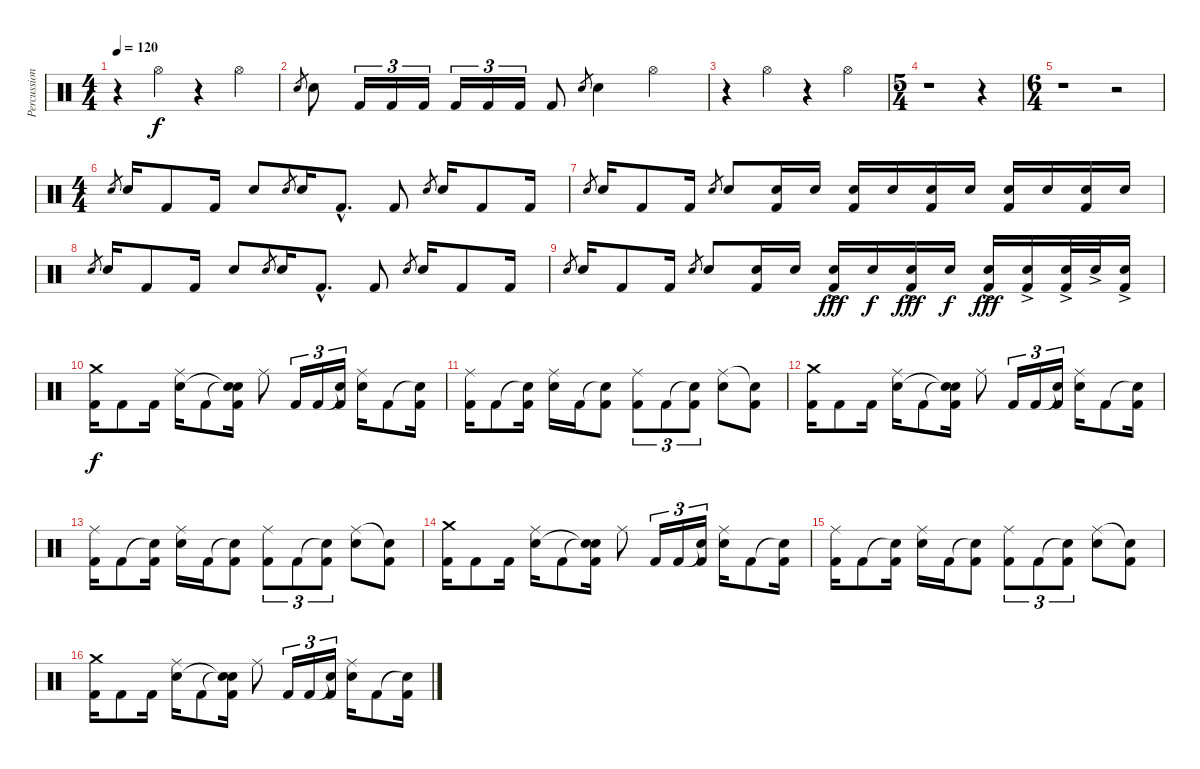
\track ("Percussion" "Percussion") {instrument percussion}
\staff {score}
\articulation defaults
\ts (4 4)
\tempo 120
\clef neutral
\ks c
r.4{dy f} "Hi-Hat (open)".4 r.4 "Hi-Hat (open)".4 |
"Electric Snare (hit)".8{gr} "Electric Snare (hit)".8 "Kick (hit) 2".16{tu (3 2)} "Kick (hit) 2".16{tu (3 2)} "Kick (hit) 2".16{tu (3 2)} "Kick (hit) 2".16{tu (3 2)} "Kick (hit) 2".16{tu (3 2)} "Kick (hit) 2".16{tu (3 2)} "Kick (hit) 2".8 "Electric Snare (hit)".8{gr} "Electric Snare (hit)".4 "Hi-Hat (open)".4 |
r.4 "Hi-Hat (open)".4 r.4 "Hi-Hat (open)".4 |
\ts (5 4)
r.1 r.4 |
\ts (6 4)
r.1 r.2 |
\ts (4 4)
"Electric Snare (hit)".8{gr} "Electric Snare (hit)".16 "Kick (hit) 2".8 "Kick (hit) 2".16 "Electric Snare (hit)".8 "Electric Snare (hit)".8{gr} "Electric Snare (hit)".16 "Kick (hit) 2"{hac}.8{d} "Kick (hit) 2".8 "Electric Snare (hit)".8{gr} "Electric Snare (hit)".16 "Kick (hit) 2".8 "Kick (hit) 2".16 |
"Electric Snare (hit)".8{gr} "Electric Snare (hit)".16 "Kick (hit) 2".8 "Kick (hit) 2".16 "Electric Snare (hit)".8{gr} "Electric Snare (hit)".8 ("Electric Snare (hit)" "Kick (hit) 2").16 "Electric Snare (hit)".16 ("Electric Snare (hit)" "Kick (hit) 2").16 "Electric Snare (hit)".16 ("Electric Snare (hit)" "Kick (hit) 2").16 "Electric Snare (hit)".16 ("Electric Snare (hit)" "Kick (hit) 2").16 "Electric Snare (hit)".16 ("Electric Snare (hit)" "Kick (hit) 2").16 "Electric Snare (hit)".16 |
"Electric Snare (hit)".8{gr} "Electric Snare (hit)".16 "Kick (hit) 2".8 "Kick (hit) 2".16 "Electric Snare (hit)".8 "Electric Snare (hit)".8{gr} "Electric Snare (hit)".16 "Kick (hit) 2"{hac}.8{d} "Kick (hit) 2".8 "Electric Snare (hit)".8{gr} "Electric Snare (hit)".16 "Kick (hit) 2".8 "Kick (hit) 2".16 |
"Electric Snare (hit)".8{gr} "Electric Snare (hit)".16 "Kick (hit) 2".8 "Kick (hit) 2".16 "Electric Snare (hit)".8{gr} "Electric Snare (hit)".8 ("Electric Snare (hit)" "Kick (hit) 2").16 "Electric Snare (hit)".16 ("Electric Snare (hit)"{ac} "Kick (hit) 2").16{dy fff} "Electric Snare (hit)".16{dy f} ("Electric Snare (hit)"{ac} "Kick (hit) 2").16{dy fff} "Electric Snare (hit)".16{dy f} ("Electric Snare (hit)"{ac} "Kick (hit) 2").16{dy fff} ("Electric Snare (hit)"{ac} "Kick (hit) 2").16 ("Electric Snare (hit)"{ac} "Kick (hit) 2").32 "Electric Snare (hit)"{ac}.32 ("Electric Snare (hit)"{ac} "Kick (hit) 2").16 |
("Crash medium (hit)" "Kick (hit) 2").16{dy f} "Kick (hit) 2".8 "Kick (hit) 2".16 ("Ride (middle)" "Electric Snare (hit)").16 "Kick (hit) 2".8 ("Snare (hit)"{t} "Snare (hit)"{t} "Kick (hit) 2").16 "Ride (middle)".8 "Kick (hit) 2".16{tu (3 2)} "Kick (hit) 2".16{tu (3 2)} ("Snare (hit)"{t} "Kick (hit) 2").16{tu (3 2)} ("Ride (middle)" "Electric Snare (hit)").16 "Kick (hit) 2".8 ("Snare (hit)"{t} "Kick (hit) 2").16 |
("Ride (middle)" "Kick (hit) 2").16 "Kick (hit) 2".8 ("Snare (hit)"{t} "Kick (hit) 2").16 ("Ride (middle)" "Electric Snare (hit)").16 "Kick (hit) 2".16 ("Snare (hit)"{t} "Kick (hit) 2").8 ("Ride (middle)" "Kick (hit) 2").8{tu (3 2)} "Kick (hit) 2".8{tu (3 2)} ("Snare (hit)"{t} "Kick (hit) 2").8{tu (3 2)} ("Ride (middle)" "Electric Snare (hit)").8 ("Snare (hit)"{t} "Kick (hit) 2").8 |
("Crash medium (hit)" "Kick (hit) 2").16 "Kick (hit) 2".8 "Kick (hit) 2".16 ("Ride (middle)" "Electric Snare (hit)").16 "Kick (hit) 2".8 ("Snare (hit)"{t} "Snare (hit)"{t} "Kick (hit) 2").16 "Ride (middle)".8 "Kick (hit) 2".16{tu (3 2)} "Kick (hit) 2".16{tu (3 2)} ("Snare (hit)"{t} "Kick (hit) 2").16{tu (3 2)} ("Ride (middle)" "Electric Snare (hit)").16 "Kick (hit) 2".8 ("Snare (hit)"{t} "Kick (hit) 2").16 |
("Ride (middle)" "Kick (hit) 2").16 "Kick (hit) 2".8 ("Snare (hit)"{t} "Kick (hit) 2").16 ("Ride (middle)" "Electric Snare (hit)").16 "Kick (hit) 2".16 ("Snare (hit)"{t} "Kick (hit) 2").8 ("Ride (middle)" "Kick (hit) 2").8{tu (3 2)} "Kick (hit) 2".8{tu (3 2)} ("Snare (hit)"{t} "Kick (hit) 2").8{tu (3 2)} ("Ride (middle)" "Electric Snare (hit)").8 ("Snare (hit)"{t} "Kick (hit) 2").8 |
("Crash medium (hit)" "Kick (hit) 2").16 "Kick (hit) 2".8 "Kick (hit) 2".16 ("Ride (middle)" "Electric Snare (hit)").16 "Kick (hit) 2".8 ("Snare (hit)"{t} "Snare (hit)"{t} "Kick (hit) 2").16 "Ride (middle)".8 "Kick (hit) 2".16{tu (3 2)} "Kick (hit) 2".16{tu (3 2)} ("Snare (hit)"{t} "Kick (hit) 2").16{tu (3 2)} ("Ride (middle)" "Electric Snare (hit)").16 "Kick (hit) 2".8 ("Snare (hit)"{t} "Kick (hit) 2").16 |
("Ride (middle)" "Kick (hit) 2").16 "Kick (hit) 2".8 ("Snare (hit)"{t} "Kick (hit) 2").16 ("Ride (middle)" "Electric Snare (hit)").16 "Kick (hit) 2".16 ("Snare (hit)"{t} "Kick (hit) 2").8 ("Ride (middle)" "Kick (hit) 2").8{tu (3 2)} "Kick (hit) 2".8{tu (3 2)} ("Snare (hit)"{t} "Kick (hit) 2").8{tu (3 2)} ("Ride (middle)" "Electric Snare (hit)").8 ("Snare (hit)"{t} "Kick (hit) 2").8 |
("Crash medium (hit)" "Kick (hit) 2").16 "Kick (hit) 2".8 "Kick (hit) 2".16 ("Ride (middle)" "Electric Snare (hit)").16 "Kick (hit) 2".8 ("Snare (hit)"{t} "Snare (hit)"{t} "Kick (hit) 2").16 "Ride (middle)".8 "Kick (hit) 2".16{tu (3 2)} "Kick (hit) 2".16{tu (3 2)} ("Snare (hit)"{t} "Kick (hit) 2").16{tu (3 2)} ("Ride (middle)" "Electric Snare (hit)").16 "Kick (hit) 2".8 ("Snare (hit)"{t} "Kick (hit) 2").16
